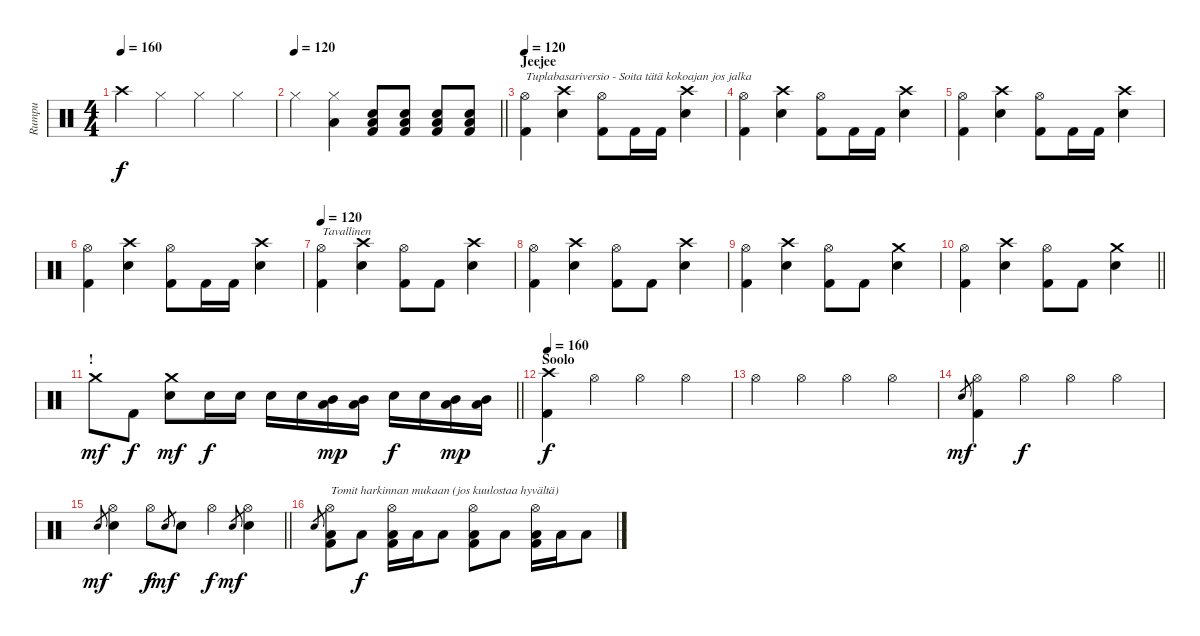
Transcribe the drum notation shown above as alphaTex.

\track ("Rumpu" "Rumpu") {instrument percussion}
\staff {score}
\articulation defaults
\ts (4 4)
\tempo 160
\clef neutral
\ks c "Crash high (hit)".4{dy f} "Hi-Hat (closed)".4 "Hi-Hat (closed)".4 "Hi-Hat (closed)".4
|
\tempo 120
\barLineRight lightlight "Hi-Hat (closed)".4
("Hi-Hat (closed)" "Low Floor Tom (hit)").4 ("Low Floor Tom (hit)" "Snare (hit) 2" "Kick (hit) 2").8 ("Low Floor Tom (hit)" "Snare (hit) 2" "Kick (hit) 2").8 ("Low Floor Tom (hit)" "Snare (hit) 2" "Kick (hit) 2").8 ("Low Floor Tom (hit)" "Snare (hit) 2" "Kick (hit) 2").8 |
\section ("" "Jeejee")
\tempo 120
("Hi-Hat (open)" "Kick (hit) 2").4{txt "Tuplabasariversio - Soita tätä kokoajan jos jalka "} ("Crash high (hit)" "Snare (hit) 2").4 ("Hi-Hat (open)" "Kick (hit) 2").8 "Kick (hit) 2".16 "Kick (hit) 2".16 ("Crash high (hit)" "Snare (hit) 2").4 |
("Hi-Hat (open)" "Kick (hit) 2").4 ("Crash high (hit)" "Snare (hit) 2").4 ("Hi-Hat (open)" "Kick (hit) 2").8 "Kick (hit) 2".16 "Kick (hit) 2".16 ("Crash high (hit)" "Snare (hit) 2").4 |
("Hi-Hat (open)" "Kick (hit) 2").4 ("Crash high (hit)" "Snare (hit) 2").4 ("Hi-Hat (open)" "Kick (hit) 2").8 "Kick (hit) 2".16 "Kick (hit) 2".16 ("Crash high (hit)" "Snare (hit) 2").4 |
("Hi-Hat (open)" "Kick (hit) 2").4 ("Crash high (hit)" "Snare (hit) 2").4 ("Hi-Hat (open)" "Kick (hit) 2").8 "Kick (hit) 2".16 "Kick (hit) 2".16 ("Crash high (hit)" "Snare (hit) 2").4 |
\tempo 120
("Hi-Hat (open)" "Kick (hit) 2").4{txt "Tavallinen"} ("Crash high (hit)" "Snare (hit) 2").4 ("Hi-Hat (open)" "Kick (hit) 2").8 "Kick (hit) 2".8 ("Crash high (hit)" "Snare (hit) 2").4 |
("Hi-Hat (open)" "Kick (hit) 2").4 ("Crash high (hit)" "Snare (hit) 2").4 ("Hi-Hat (open)" "Kick (hit) 2").8 "Kick (hit) 2".8 ("Crash high (hit)" "Snare (hit) 2").4 |
("Hi-Hat (open)" "Kick (hit) 2").4 ("Crash high (hit)" "Snare (hit) 2").4 ("Hi-Hat (open)" "Kick (hit) 2").8 "Kick (hit) 2".8 ("Crash medium (hit)" "Snare (hit) 2").4 |
\barLineRight lightlight
("Hi-Hat (open)" "Kick (hit) 2").4 ("Crash high (hit)" "Snare (hit) 2").4 ("Hi-Hat (open)" "Kick (hit) 2").8 "Kick (hit) 2".8 ("Crash medium (hit)" "Snare (hit) 2").4 |
\section ("" "!")
\barLineRight lightlight "Crash medium (hit)".8{dy mf} "Kick (hit) 2".8{dy f}
("Snare (hit) 2" "Crash medium (hit)").8{dy mf} "Snare (hit) 2".16{dy f} "Snare (hit) 2".16 "Snare (hit) 2".16 "Snare (hit) 2".16 ("Mid Tom (hit)" "Low Tom (hit)").16{dy mp} ("Mid Tom (hit)" "Low Tom (hit)").16 "Snare (hit) 2".16{dy f} "Snare (hit) 2".16 ("Mid Tom (hit)" "Low Tom (hit)").16{dy mp} ("Mid Tom (hit)" "Low Tom (hit)").16 |
\section ("" "Soolo")
\tempo 160
("Crash high (hit)" "Kick (hit) 2").4{dy f} "Hi-Hat (open)".4 "Hi-Hat (open)".4 "Hi-Hat (open)".4 |
"Hi-Hat (open)".4 "Hi-Hat (open)".4 "Hi-Hat (open)".4 "Hi-Hat (open)".4 |
"Snare (hit)".8{gr dy mf} ("Hi-Hat (open)" "Kick (hit) 2").4 "Hi-Hat (open)".4{dy f} "Hi-Hat (open)".4 "Hi-Hat (open)".4 |
\barLineRight lightlight "Snare (hit) 2".8{gr dy mf}
("Hi-Hat (open)" "Snare (hit) 2").4 "Hi-Hat (open)".8{dy f} "Snare (hit) 2".8{gr dy mf} "Snare (hit) 2".8 "Hi-Hat (open)".4{dy f} "Snare (hit) 2".8{gr dy mf} ("Hi-Hat (open)" "Snare (hit) 2").4 |
"Snare (hit)".8{gr} ("Hi-Hat (open)" "Low Floor Tom (hit)" "Kick (hit) 2").8{txt "Tomit harkinnan mukaan (jos kuulostaa hyvältä)"} "Low Floor Tom (hit)".8{dy f} ("Hi-Hat (open)" "Low Floor Tom (hit)" "Kick (hit) 2").16 "Low Floor Tom (hit)".16 "Low Floor Tom (hit)".8 ("Hi-Hat (open)" "Low Floor Tom (hit)" "Kick (hit) 2").8 "Low Floor Tom (hit)".8 ("Hi-Hat (open)" "Low Floor Tom (hit)" "Kick (hit) 2").16 "Low Floor Tom (hit)".16 "Low Floor Tom (hit)".8
